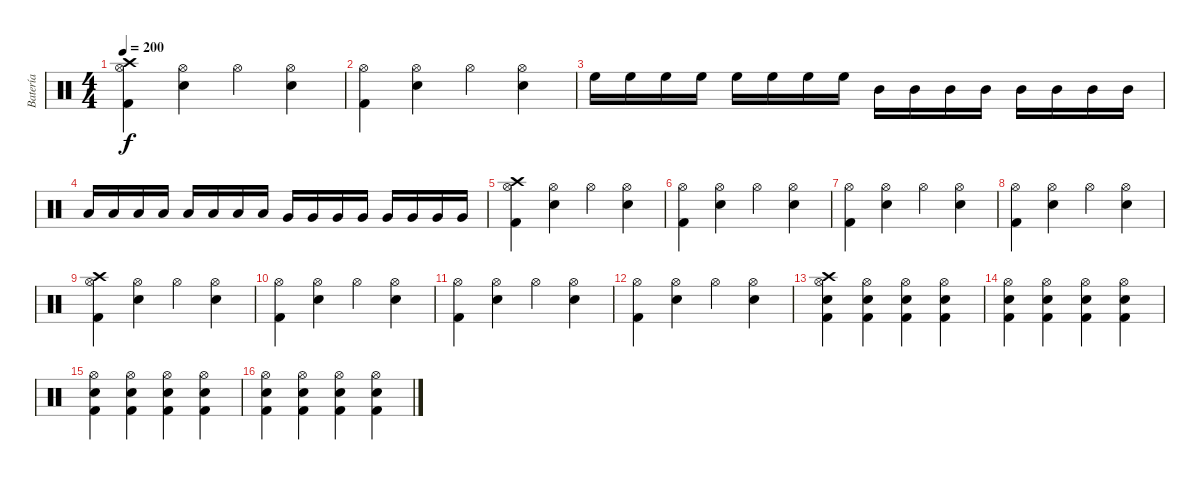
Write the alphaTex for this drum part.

\track ("Batería" "Batería") {instrument percussion}
\staff {score}
\articulation defaults
\ts (4 4)
\tempo 200
\clef neutral
\ks c
("Hi-Hat (open)" "Kick (hit) 2" "Crash high (hit)").4{dy f} ("Hi-Hat (open)" "Electric Snare (hit)").4 "Hi-Hat (open)".4 ("Hi-Hat (open)" "Electric Snare (hit)").4 |
("Hi-Hat (open)" "Kick (hit) 2").4 ("Hi-Hat (open)" "Electric Snare (hit)").4 "Hi-Hat (open)".4 ("Hi-Hat (open)" "Electric Snare (hit)").4 |
"High Floor Tom (hit)".16 "High Floor Tom (hit)".16 "High Floor Tom (hit)".16 "High Floor Tom (hit)".16 "High Floor Tom (hit)".16 "High Floor Tom (hit)".16 "High Floor Tom (hit)".16 "High Floor Tom (hit)".16 "Mid Tom (hit)".16 "Mid Tom (hit)".16 "Mid Tom (hit)".16 "Mid Tom (hit)".16 "Mid Tom (hit)".16 "Mid Tom (hit)".16 "Mid Tom (hit)".16 "Mid Tom (hit)".16 |
"Low Tom (hit)".16 "Low Tom (hit)".16 "Low Tom (hit)".16 "Low Tom (hit)".16 "Low Tom (hit)".16 "Low Tom (hit)".16 "Low Tom (hit)".16 "Low Tom (hit)".16 "Very Low Tom (hit)".16 "Very Low Tom (hit)".16 "Very Low Tom (hit)".16 "Very Low Tom (hit)".16 "Very Low Tom (hit)".16 "Very Low Tom (hit)".16 "Very Low Tom (hit)".16 "Very Low Tom (hit)".16 |
("Hi-Hat (open)" "Kick (hit) 2" "Crash high (hit)").4 ("Hi-Hat (open)" "Electric Snare (hit)").4 "Hi-Hat (open)".4 ("Hi-Hat (open)" "Electric Snare (hit)").4 |
("Hi-Hat (open)" "Kick (hit) 2").4 ("Hi-Hat (open)" "Electric Snare (hit)").4 "Hi-Hat (open)".4 ("Hi-Hat (open)" "Electric Snare (hit)").4 |
("Hi-Hat (open)" "Kick (hit) 2").4 ("Hi-Hat (open)" "Electric Snare (hit)").4 "Hi-Hat (open)".4 ("Hi-Hat (open)" "Electric Snare (hit)").4 |
("Hi-Hat (open)" "Kick (hit) 2").4 ("Hi-Hat (open)" "Electric Snare (hit)").4 "Hi-Hat (open)".4 ("Hi-Hat (open)" "Electric Snare (hit)").4 |
("Hi-Hat (open)" "Kick (hit) 2" "Crash high (hit)").4 ("Hi-Hat (open)" "Electric Snare (hit)").4 "Hi-Hat (open)".4 ("Hi-Hat (open)" "Electric Snare (hit)").4 |
("Hi-Hat (open)" "Kick (hit) 2").4 ("Hi-Hat (open)" "Electric Snare (hit)").4 "Hi-Hat (open)".4 ("Hi-Hat (open)" "Electric Snare (hit)").4 |
("Hi-Hat (open)" "Kick (hit) 2").4 ("Hi-Hat (open)" "Electric Snare (hit)").4 "Hi-Hat (open)".4 ("Hi-Hat (open)" "Electric Snare (hit)").4 |
("Hi-Hat (open)" "Kick (hit) 2").4 ("Hi-Hat (open)" "Electric Snare (hit)").4 "Hi-Hat (open)".4 ("Hi-Hat (open)" "Electric Snare (hit)").4 |
("Electric Snare (hit)" "Kick (hit) 2" "Hi-Hat (open)" "Crash high (hit)").4 ("Electric Snare (hit)" "Kick (hit) 2" "Hi-Hat (open)").4 ("Electric Snare (hit)" "Kick (hit) 2" "Hi-Hat (open)").4 ("Electric Snare (hit)" "Kick (hit) 2" "Hi-Hat (open)").4 |
("Electric Snare (hit)" "Kick (hit) 2" "Hi-Hat (open)").4 ("Electric Snare (hit)" "Kick (hit) 2" "Hi-Hat (open)").4 ("Electric Snare (hit)" "Kick (hit) 2" "Hi-Hat (open)").4 ("Electric Snare (hit)" "Kick (hit) 2" "Hi-Hat (open)").4 |
("Electric Snare (hit)" "Kick (hit) 2" "Hi-Hat (open)").4 ("Electric Snare (hit)" "Kick (hit) 2" "Hi-Hat (open)").4 ("Electric Snare (hit)" "Kick (hit) 2" "Hi-Hat (open)").4 ("Electric Snare (hit)" "Kick (hit) 2" "Hi-Hat (open)").4 |
("Electric Snare (hit)" "Kick (hit) 2" "Hi-Hat (open)").4 ("Electric Snare (hit)" "Kick (hit) 2" "Hi-Hat (open)").4 ("Electric Snare (hit)" "Kick (hit) 2" "Hi-Hat (open)").4 ("Electric Snare (hit)" "Kick (hit) 2" "Hi-Hat (open)").4
